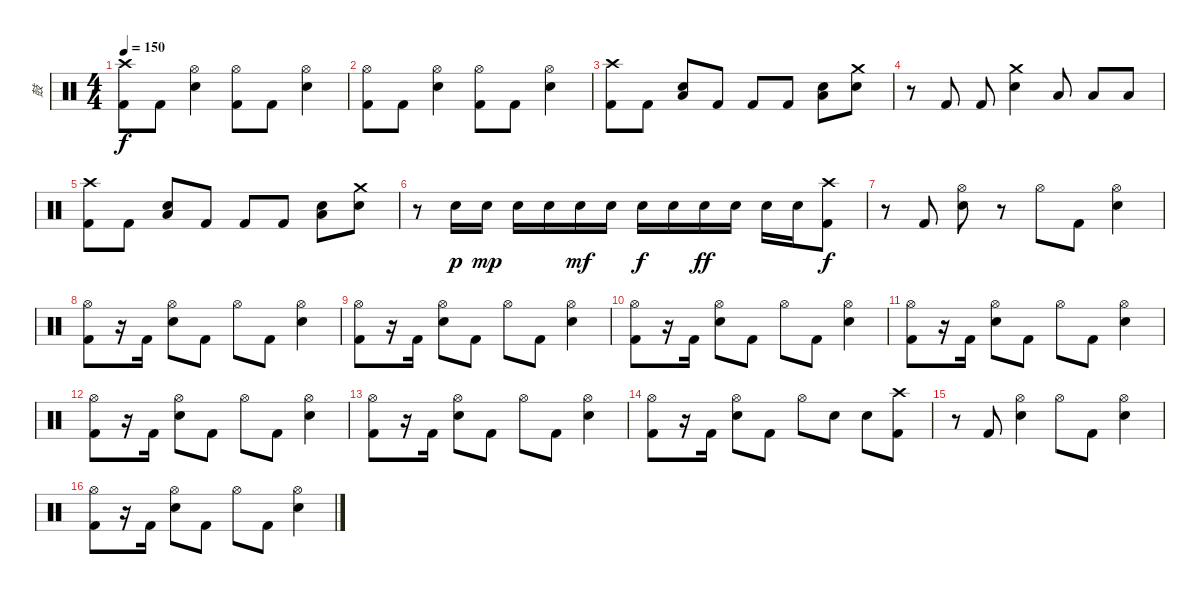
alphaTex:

\track ("鼓" "鼓") {instrument percussion}
\staff {score}
\articulation defaults
\ts (4 4)
\tempo 150
\clef neutral
\ks c
("Crash high (hit)" "Kick (hit) 2").8{dy f} "Kick (hit) 2".8 ("Hi-Hat (open)" "Snare (hit) 2").4 ("Hi-Hat (open)" "Kick (hit) 2").8 "Kick (hit) 2".8 ("Hi-Hat (open)" "Snare (hit) 2").4 |
("Hi-Hat (open)" "Kick (hit) 2").8 "Kick (hit) 2".8 ("Hi-Hat (open)" "Snare (hit) 2").4 ("Hi-Hat (open)" "Kick (hit) 2").8 "Kick (hit) 2".8 ("Hi-Hat (open)" "Snare (hit) 2").4 |
("Crash high (hit)" "Kick (hit) 2").8 "Kick (hit) 2".8 ("Snare (hit) 2" "Low Floor Tom (hit)").8 "Kick (hit) 2".8 "Kick (hit) 2".8 "Kick (hit) 2".8 ("Snare (hit) 2" "Low Floor Tom (hit)").8 ("Crash medium (hit)" "Snare (hit) 2").8 |
r.8 "Kick (hit) 2".8 "Kick (hit) 2".8 ("Crash medium (hit)" "Snare (hit) 2").4 "Low Tom (hit)".8 "Low Floor Tom (hit)".8 "Low Floor Tom (hit)".8 |
("Crash high (hit)" "Kick (hit) 2").8 "Kick (hit) 2".8 ("Snare (hit) 2" "Low Floor Tom (hit)").8 "Kick (hit) 2".8 "Kick (hit) 2".8 "Kick (hit) 2".8 ("Snare (hit) 2" "Low Floor Tom (hit)").8 ("Crash medium (hit)" "Snare (hit) 2").8 |
r.8 "Snare (hit) 2".16{dy p} "Snare (hit) 2".16{dy mp} "Snare (hit) 2".16 "Snare (hit) 2".16 "Snare (hit) 2".16{dy mf} "Snare (hit) 2".16 "Snare (hit) 2".16{dy f} "Snare (hit) 2".16 "Snare (hit) 2".16{dy ff} "Snare (hit) 2".16 "Snare (hit) 2".16 "Snare (hit) 2".16 ("Crash high (hit)" "Kick (hit) 2").8{dy f} |
r.8 "Kick (hit) 2".8 ("Hi-Hat (open)" "Snare (hit) 2").8 r.8 "Hi-Hat (open)".8 "Kick (hit) 2".8 ("Hi-Hat (open)" "Snare (hit) 2").4 |
("Hi-Hat (open)" "Kick (hit) 2").8 r.16 "Kick (hit) 2".16 ("Hi-Hat (open)" "Snare (hit) 2").8 "Kick (hit) 2".8 "Hi-Hat (open)".8 "Kick (hit) 2".8 ("Hi-Hat (open)" "Snare (hit) 2").4 |
("Hi-Hat (open)" "Kick (hit) 2").8 r.16 "Kick (hit) 2".16 ("Hi-Hat (open)" "Snare (hit) 2").8 "Kick (hit) 2".8 "Hi-Hat (open)".8 "Kick (hit) 2".8 ("Hi-Hat (open)" "Snare (hit) 2").4 |
("Hi-Hat (open)" "Kick (hit) 2").8 r.16 "Kick (hit) 2".16 ("Hi-Hat (open)" "Snare (hit) 2").8 "Kick (hit) 2".8 "Hi-Hat (open)".8 "Kick (hit) 2".8 ("Hi-Hat (open)" "Snare (hit) 2").4 |
("Hi-Hat (open)" "Kick (hit) 2").8 r.16 "Kick (hit) 2".16 ("Hi-Hat (open)" "Snare (hit) 2").8 "Kick (hit) 2".8 "Hi-Hat (open)".8 "Kick (hit) 2".8 ("Hi-Hat (open)" "Snare (hit) 2").4 |
("Hi-Hat (open)" "Kick (hit) 2").8 r.16 "Kick (hit) 2".16 ("Hi-Hat (open)" "Snare (hit) 2").8 "Kick (hit) 2".8 "Hi-Hat (open)".8 "Kick (hit) 2".8 ("Hi-Hat (open)" "Snare (hit) 2").4 |
("Hi-Hat (open)" "Kick (hit) 2").8 r.16 "Kick (hit) 2".16 ("Hi-Hat (open)" "Snare (hit) 2").8 "Kick (hit) 2".8 "Hi-Hat (open)".8 "Kick (hit) 2".8 ("Hi-Hat (open)" "Snare (hit) 2").4 |
("Hi-Hat (open)" "Kick (hit) 2").8 r.16 "Kick (hit) 2".16 ("Hi-Hat (open)" "Snare (hit) 2").8 "Kick (hit) 2".8 "Hi-Hat (open)".8 "Snare (hit) 2".8 "Snare (hit) 2".8 ("Crash high (hit)" "Kick (hit) 2").8 |
r.8 "Kick (hit) 2".8 ("Hi-Hat (open)" "Snare (hit) 2").4 "Hi-Hat (open)".8 "Kick (hit) 2".8 ("Hi-Hat (open)" "Snare (hit) 2").4 |
("Hi-Hat (open)" "Kick (hit) 2").8 r.16 "Kick (hit) 2".16 ("Hi-Hat (open)" "Snare (hit) 2").8 "Kick (hit) 2".8 "Hi-Hat (open)".8 "Kick (hit) 2".8 ("Hi-Hat (open)" "Snare (hit) 2").4
